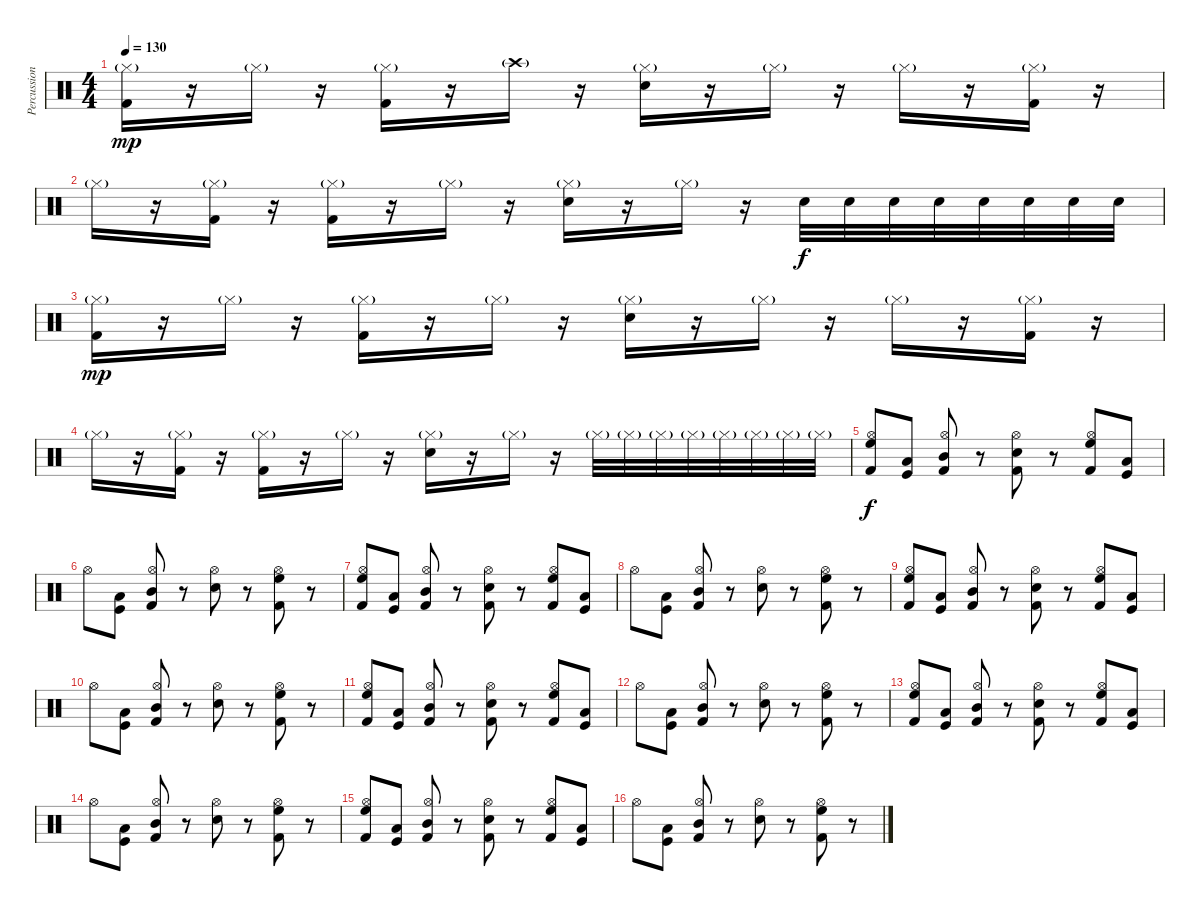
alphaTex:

\track ("Percussion" "Percussion") {instrument percussion}
\staff {score}
\articulation defaults
\ts (4 4)
\tempo 130
\clef neutral
\ks c
("Hi-Hat (closed)"{g} "Kick (hit) 2").16{dy mp} r.16 "Hi-Hat (closed)"{g}.16 r.16 ("Hi-Hat (closed)"{g} "Kick (hit) 2").16 r.16 "Crash high (hit)"{g}.16 r.16 ("Hi-Hat (closed)"{g} "Snare (hit) 2").16 r.16 "Hi-Hat (closed)"{g}.16 r.16 "Hi-Hat (closed)"{g}.16 r.16 ("Hi-Hat (closed)"{g} "Kick (hit) 2").16 r.16 |
"Hi-Hat (closed)"{g}.16 r.16 ("Hi-Hat (closed)"{g} "Kick (hit) 2").16 r.16 ("Hi-Hat (closed)"{g} "Kick (hit) 2").16 r.16 "Hi-Hat (closed)"{g}.16 r.16 ("Hi-Hat (closed)"{g} "Snare (hit) 2").16 r.16 "Hi-Hat (closed)"{g}.16 r.16 "Snare (hit) 2".32{dy f} "Snare (hit) 2".32 "Snare (hit) 2".32 "Snare (hit) 2".32 "Snare (hit) 2".32 "Snare (hit) 2".32 "Snare (hit) 2".32 "Snare (hit) 2".32 |
("Hi-Hat (closed)"{g} "Kick (hit) 2").16{dy mp} r.16 "Hi-Hat (closed)"{g}.16 r.16 ("Hi-Hat (closed)"{g} "Kick (hit) 2").16 r.16 "Hi-Hat (closed)"{g}.16 r.16 ("Hi-Hat (closed)"{g} "Snare (hit) 2").16 r.16 "Hi-Hat (closed)"{g}.16 r.16 "Hi-Hat (closed)"{g}.16 r.16 ("Hi-Hat (closed)"{g} "Kick (hit) 2").16 r.16 |
"Hi-Hat (closed)"{g}.16 r.16 ("Hi-Hat (closed)"{g} "Kick (hit) 2").16 r.16 ("Hi-Hat (closed)"{g} "Kick (hit) 2").16 r.16 "Hi-Hat (closed)"{g}.16 r.16 ("Hi-Hat (closed)"{g} "Snare (hit) 2").16 r.16 "Hi-Hat (closed)"{g}.16 r.16 "Hi-Hat (closed)"{g}.32 "Hi-Hat (closed)"{g}.32 "Hi-Hat (closed)"{g}.32 "Hi-Hat (closed)"{g}.32 "Hi-Hat (closed)"{g}.32 "Hi-Hat (closed)"{g}.32 "Hi-Hat (closed)"{g}.32 "Hi-Hat (closed)"{g}.32 |
("Hi-Hat (open)" "High Floor Tom (hit)" "Kick (hit) 2").8{dy f} ("Low Tom (hit)" "Kick (hit)").8 ("Hi-Hat (open)" "Mid Tom (hit)" "Kick (hit) 2").8 r.8 ("Hi-Hat (open)" "Snare (hit) 2" "Kick (hit) 2").8 r.8 ("Hi-Hat (open)" "High Floor Tom (hit)" "Kick (hit) 2").8 ("Low Tom (hit)" "Kick (hit)").8 |
"Hi-Hat (open)".8 ("Low Tom (hit)" "Kick (hit)").8 ("Hi-Hat (open)" "Mid Tom (hit)" "Kick (hit) 2").8 r.8 ("Hi-Hat (open)" "Snare (hit) 2").8 r.8 ("Hi-Hat (open)" "High Floor Tom (hit)" "Kick (hit) 2").8 r.8 |
("Hi-Hat (open)" "High Floor Tom (hit)" "Kick (hit) 2").8 ("Low Tom (hit)" "Kick (hit)").8 ("Hi-Hat (open)" "Mid Tom (hit)" "Kick (hit) 2").8 r.8 ("Hi-Hat (open)" "Snare (hit) 2" "Kick (hit) 2").8 r.8 ("Hi-Hat (open)" "High Floor Tom (hit)" "Kick (hit) 2").8 ("Low Tom (hit)" "Kick (hit)").8 |
"Hi-Hat (open)".8 ("Low Tom (hit)" "Kick (hit)").8 ("Hi-Hat (open)" "Mid Tom (hit)" "Kick (hit) 2").8 r.8 ("Hi-Hat (open)" "Snare (hit) 2").8 r.8 ("Hi-Hat (open)" "High Floor Tom (hit)" "Kick (hit) 2").8 r.8 |
("Hi-Hat (open)" "High Floor Tom (hit)" "Kick (hit) 2").8 ("Low Tom (hit)" "Kick (hit)").8 ("Hi-Hat (open)" "Mid Tom (hit)" "Kick (hit) 2").8 r.8 ("Hi-Hat (open)" "Snare (hit) 2" "Kick (hit) 2").8 r.8 ("Hi-Hat (open)" "High Floor Tom (hit)" "Kick (hit) 2").8 ("Low Tom (hit)" "Kick (hit)").8 |
"Hi-Hat (open)".8 ("Low Tom (hit)" "Kick (hit)").8 ("Hi-Hat (open)" "Mid Tom (hit)" "Kick (hit) 2").8 r.8 ("Hi-Hat (open)" "Snare (hit) 2").8 r.8 ("Hi-Hat (open)" "High Floor Tom (hit)" "Kick (hit) 2").8 r.8 |
("Hi-Hat (open)" "High Floor Tom (hit)" "Kick (hit) 2").8 ("Low Tom (hit)" "Kick (hit)").8 ("Hi-Hat (open)" "Mid Tom (hit)" "Kick (hit) 2").8 r.8 ("Hi-Hat (open)" "Snare (hit) 2" "Kick (hit) 2").8 r.8 ("Hi-Hat (open)" "High Floor Tom (hit)" "Kick (hit) 2").8 ("Low Tom (hit)" "Kick (hit)").8 |
"Hi-Hat (open)".8 ("Low Tom (hit)" "Kick (hit)").8 ("Hi-Hat (open)" "Mid Tom (hit)" "Kick (hit) 2").8 r.8 ("Hi-Hat (open)" "Snare (hit) 2").8 r.8 ("Hi-Hat (open)" "High Floor Tom (hit)" "Kick (hit) 2").8 r.8 |
("Hi-Hat (open)" "High Floor Tom (hit)" "Kick (hit) 2").8 ("Low Tom (hit)" "Kick (hit)").8 ("Hi-Hat (open)" "Mid Tom (hit)" "Kick (hit) 2").8 r.8 ("Hi-Hat (open)" "Snare (hit) 2" "Kick (hit) 2").8 r.8 ("Hi-Hat (open)" "High Floor Tom (hit)" "Kick (hit) 2").8 ("Low Tom (hit)" "Kick (hit)").8 |
"Hi-Hat (open)".8 ("Low Tom (hit)" "Kick (hit)").8 ("Hi-Hat (open)" "Mid Tom (hit)" "Kick (hit) 2").8 r.8 ("Hi-Hat (open)" "Snare (hit) 2").8 r.8 ("Hi-Hat (open)" "High Floor Tom (hit)" "Kick (hit) 2").8 r.8 |
("Hi-Hat (open)" "High Floor Tom (hit)" "Kick (hit) 2").8 ("Low Tom (hit)" "Kick (hit)").8 ("Hi-Hat (open)" "Mid Tom (hit)" "Kick (hit) 2").8 r.8 ("Hi-Hat (open)" "Snare (hit) 2" "Kick (hit) 2").8 r.8 ("Hi-Hat (open)" "High Floor Tom (hit)" "Kick (hit) 2").8 ("Low Tom (hit)" "Kick (hit)").8 |
"Hi-Hat (open)".8 ("Low Tom (hit)" "Kick (hit)").8 ("Hi-Hat (open)" "Mid Tom (hit)" "Kick (hit) 2").8 r.8 ("Hi-Hat (open)" "Snare (hit) 2").8 r.8 ("Hi-Hat (open)" "High Floor Tom (hit)" "Kick (hit) 2").8 r.8
